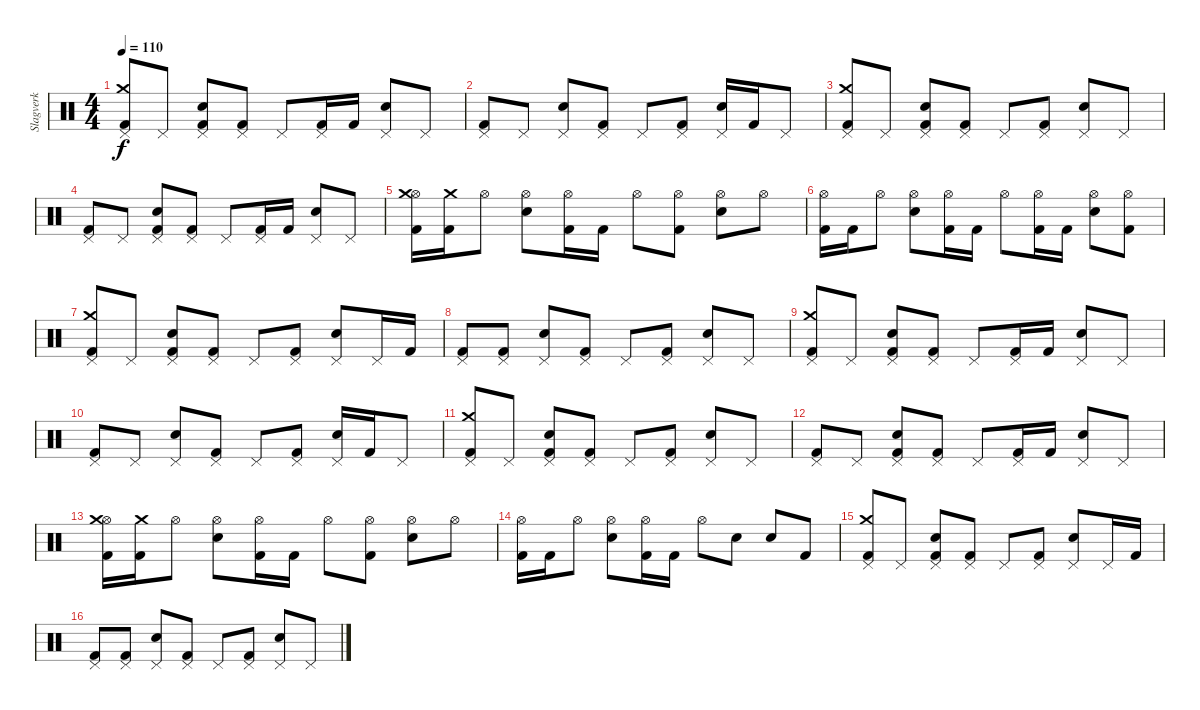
\track ("Slagverk" "Slagverk") {instrument percussion}
\staff {score}
\articulation defaults
\ts (4 4)
\tempo 110
\clef neutral
\ks c
("Pedal Hi-Hat (hit)" "Crash medium (hit)" "Kick (hit) 2").8{dy f} "Pedal Hi-Hat (hit)".8 ("Pedal Hi-Hat (hit)" "Electric Snare (hit)" "Kick (hit) 2").8 ("Pedal Hi-Hat (hit)" "Kick (hit) 2").8 "Pedal Hi-Hat (hit)".8 ("Pedal Hi-Hat (hit)" "Kick (hit) 2").16 "Kick (hit) 2".16 ("Pedal Hi-Hat (hit)" "Electric Snare (hit)").8 "Pedal Hi-Hat (hit)".8 |
("Pedal Hi-Hat (hit)" "Kick (hit) 2").8 "Pedal Hi-Hat (hit)".8 ("Pedal Hi-Hat (hit)" "Electric Snare (hit)").8 ("Pedal Hi-Hat (hit)" "Kick (hit) 2").8 "Pedal Hi-Hat (hit)".8 ("Pedal Hi-Hat (hit)" "Kick (hit) 2").8 ("Pedal Hi-Hat (hit)" "Electric Snare (hit)").16 "Kick (hit) 2".16 "Pedal Hi-Hat (hit)".8 |
("Pedal Hi-Hat (hit)" "Crash medium (hit)" "Kick (hit) 2").8 "Pedal Hi-Hat (hit)".8 ("Pedal Hi-Hat (hit)" "Electric Snare (hit)" "Kick (hit) 2").8 ("Pedal Hi-Hat (hit)" "Kick (hit) 2").8 "Pedal Hi-Hat (hit)".8 ("Pedal Hi-Hat (hit)" "Kick (hit) 2").8 ("Pedal Hi-Hat (hit)" "Electric Snare (hit)").8 "Pedal Hi-Hat (hit)".8 |
("Pedal Hi-Hat (hit)" "Kick (hit) 2").8 "Pedal Hi-Hat (hit)".8 ("Pedal Hi-Hat (hit)" "Electric Snare (hit)" "Kick (hit) 2").8 ("Pedal Hi-Hat (hit)" "Kick (hit) 2").8 "Pedal Hi-Hat (hit)".8 ("Pedal Hi-Hat (hit)" "Kick (hit) 2").16 "Kick (hit) 2".16 ("Pedal Hi-Hat (hit)" "Electric Snare (hit)").8 "Pedal Hi-Hat (hit)".8 |
("Hi-Hat (open)" "Crash medium (hit)" "Kick (hit) 2").16 ("Crash medium (hit)" "Kick (hit) 2").16 "Hi-Hat (open)".8 ("Hi-Hat (open)" "Electric Snare (hit)").8 ("Hi-Hat (open)" "Kick (hit) 2").16 "Kick (hit) 2".16 "Hi-Hat (open)".8 ("Hi-Hat (open)" "Kick (hit) 2").8 ("Hi-Hat (open)" "Electric Snare (hit)").8 "Hi-Hat (open)".8 |
("Hi-Hat (open)" "Kick (hit) 2").16 "Kick (hit) 2".16 "Hi-Hat (open)".8 ("Hi-Hat (open)" "Electric Snare (hit)").8 ("Hi-Hat (open)" "Kick (hit) 2").16 "Kick (hit) 2".16 "Hi-Hat (open)".8 ("Hi-Hat (open)" "Kick (hit) 2").16 "Kick (hit) 2".16 ("Hi-Hat (open)" "Electric Snare (hit)").8 ("Hi-Hat (open)" "Kick (hit) 2").8 |
\section ("" "")
("Pedal Hi-Hat (hit)" "Crash medium (hit)" "Kick (hit) 2").8 "Pedal Hi-Hat (hit)".8 ("Pedal Hi-Hat (hit)" "Electric Snare (hit)" "Kick (hit) 2").8 ("Pedal Hi-Hat (hit)" "Kick (hit) 2").8 "Pedal Hi-Hat (hit)".8 ("Pedal Hi-Hat (hit)" "Kick (hit) 2").8 ("Pedal Hi-Hat (hit)" "Electric Snare (hit)").8 "Pedal Hi-Hat (hit)".16 "Kick (hit) 2".16 |
("Pedal Hi-Hat (hit)" "Kick (hit) 2").8 ("Pedal Hi-Hat (hit)" "Kick (hit) 2").8 ("Pedal Hi-Hat (hit)" "Electric Snare (hit)").8 ("Pedal Hi-Hat (hit)" "Kick (hit) 2").8 "Pedal Hi-Hat (hit)".8 ("Pedal Hi-Hat (hit)" "Kick (hit) 2").8 ("Pedal Hi-Hat (hit)" "Electric Snare (hit)").8 "Pedal Hi-Hat (hit)".8 |
("Pedal Hi-Hat (hit)" "Crash medium (hit)" "Kick (hit) 2").8 "Pedal Hi-Hat (hit)".8 ("Pedal Hi-Hat (hit)" "Electric Snare (hit)" "Kick (hit) 2").8 ("Pedal Hi-Hat (hit)" "Kick (hit) 2").8 "Pedal Hi-Hat (hit)".8 ("Pedal Hi-Hat (hit)" "Kick (hit) 2").16 "Kick (hit) 2".16 ("Pedal Hi-Hat (hit)" "Electric Snare (hit)").8 "Pedal Hi-Hat (hit)".8 |
("Pedal Hi-Hat (hit)" "Kick (hit) 2").8 "Pedal Hi-Hat (hit)".8 ("Pedal Hi-Hat (hit)" "Electric Snare (hit)").8 ("Pedal Hi-Hat (hit)" "Kick (hit) 2").8 "Pedal Hi-Hat (hit)".8 ("Pedal Hi-Hat (hit)" "Kick (hit) 2").8 ("Pedal Hi-Hat (hit)" "Electric Snare (hit)").16 "Kick (hit) 2".16 "Pedal Hi-Hat (hit)".8 |
("Pedal Hi-Hat (hit)" "Crash medium (hit)" "Kick (hit) 2").8 "Pedal Hi-Hat (hit)".8 ("Pedal Hi-Hat (hit)" "Electric Snare (hit)" "Kick (hit) 2").8 ("Pedal Hi-Hat (hit)" "Kick (hit) 2").8 "Pedal Hi-Hat (hit)".8 ("Pedal Hi-Hat (hit)" "Kick (hit) 2").8 ("Pedal Hi-Hat (hit)" "Electric Snare (hit)").8 "Pedal Hi-Hat (hit)".8 |
("Pedal Hi-Hat (hit)" "Kick (hit) 2").8 "Pedal Hi-Hat (hit)".8 ("Pedal Hi-Hat (hit)" "Electric Snare (hit)" "Kick (hit) 2").8 ("Pedal Hi-Hat (hit)" "Kick (hit) 2").8 "Pedal Hi-Hat (hit)".8 ("Pedal Hi-Hat (hit)" "Kick (hit) 2").16 "Kick (hit) 2".16 ("Pedal Hi-Hat (hit)" "Electric Snare (hit)").8 "Pedal Hi-Hat (hit)".8 |
("Hi-Hat (open)" "Crash medium (hit)" "Kick (hit) 2").16 ("Crash medium (hit)" "Kick (hit) 2").16 "Hi-Hat (open)".8 ("Hi-Hat (open)" "Electric Snare (hit)").8 ("Hi-Hat (open)" "Kick (hit) 2").16 "Kick (hit) 2".16 "Hi-Hat (open)".8 ("Hi-Hat (open)" "Kick (hit) 2").8 ("Hi-Hat (open)" "Electric Snare (hit)").8 "Hi-Hat (open)".8 |
("Hi-Hat (open)" "Kick (hit) 2").16 "Kick (hit) 2".16 "Hi-Hat (open)".8 ("Hi-Hat (open)" "Electric Snare (hit)").8 ("Hi-Hat (open)" "Kick (hit) 2").16 "Kick (hit) 2".16 "Hi-Hat (open)".8 "Electric Snare (hit)".8 "Electric Snare (hit)".8 "Kick (hit) 2".8 |
\section ("" "")
("Pedal Hi-Hat (hit)" "Crash medium (hit)" "Kick (hit) 2").8 "Pedal Hi-Hat (hit)".8 ("Pedal Hi-Hat (hit)" "Electric Snare (hit)" "Kick (hit) 2").8 ("Pedal Hi-Hat (hit)" "Kick (hit) 2").8 "Pedal Hi-Hat (hit)".8 ("Pedal Hi-Hat (hit)" "Kick (hit) 2").8 ("Pedal Hi-Hat (hit)" "Electric Snare (hit)").8 "Pedal Hi-Hat (hit)".16 "Kick (hit) 2".16 |
("Pedal Hi-Hat (hit)" "Kick (hit) 2").8 ("Pedal Hi-Hat (hit)" "Kick (hit) 2").8 ("Pedal Hi-Hat (hit)" "Electric Snare (hit)").8 ("Pedal Hi-Hat (hit)" "Kick (hit) 2").8 "Pedal Hi-Hat (hit)".8 ("Pedal Hi-Hat (hit)" "Kick (hit) 2").8 ("Pedal Hi-Hat (hit)" "Electric Snare (hit)").8 "Pedal Hi-Hat (hit)".8
